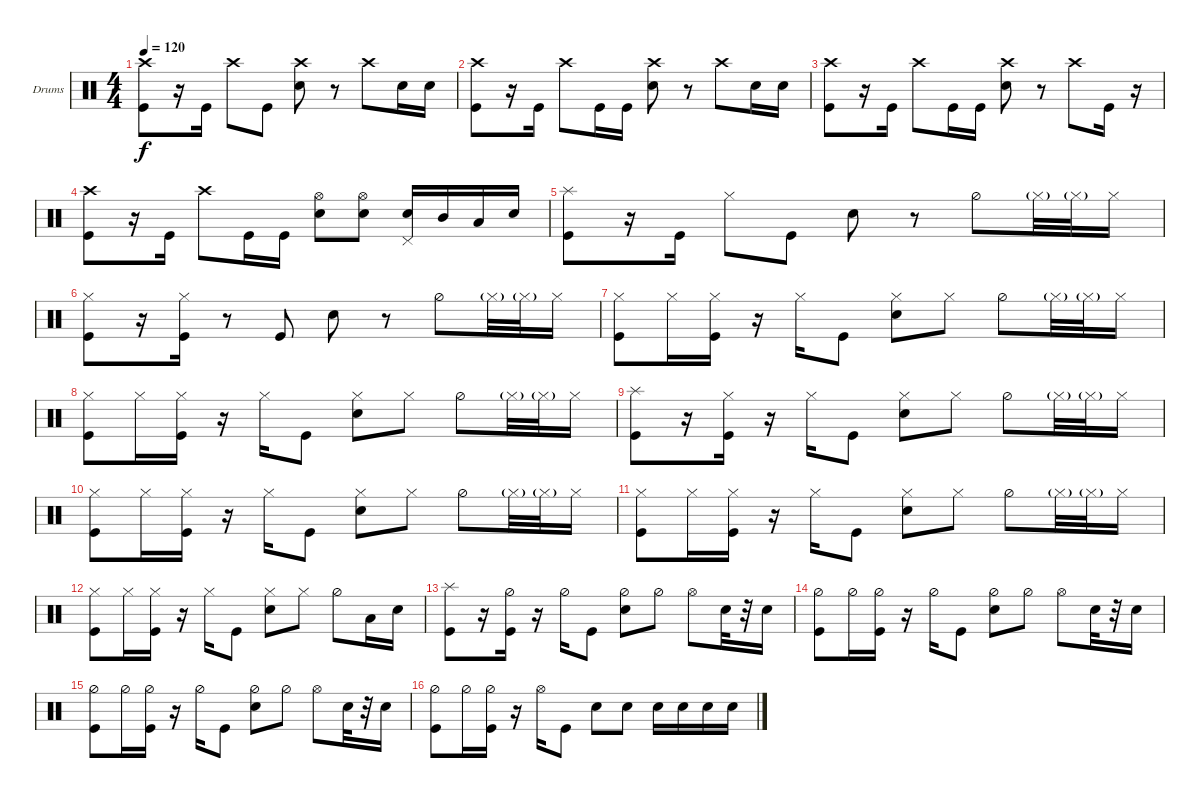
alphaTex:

\bracketExtendMode groupsimilarinstruments
\firstSystemTrackNameOrientation horizontal
\otherSystemsTrackNameOrientation horizontal
\track ("Drumkit" "Drums") {instrument percussion}
\staff {score}
\articulation defaults
\ts (4 4)
\tempo 120
\clef neutral
\ks c
("Crash high (hit)" "Kick (hit)").8{dy f} r.16 "Kick (hit)".16 "Crash high (hit)".8 "Kick (hit)".8 ("Crash high (hit)" "Snare (hit) 2").8 r.8 "Crash high (hit)".8 "Snare (hit) 2".16 "Snare (hit) 2".16 |
("Crash high (hit)" "Kick (hit)").8 r.16 "Kick (hit)".16 "Crash high (hit)".8 "Kick (hit)".16 "Kick (hit)".16 ("Crash high (hit)" "Snare (hit) 2").8 r.8 "Crash high (hit)".8 "Snare (hit) 2".16 "Snare (hit) 2".16 |
("Crash high (hit)" "Kick (hit)").8 r.16 "Kick (hit)".16 "Crash high (hit)".8 "Kick (hit)".16 "Kick (hit)".16 ("Crash high (hit)" "Snare (hit) 2").8 r.8 "Crash high (hit)".8 "Kick (hit)".16 r.16 |
("Crash high (hit)" "Kick (hit)").8 r.16 "Kick (hit)".16 "Crash high (hit)".8 "Kick (hit)".16 "Kick (hit)".16 ("Hi-Hat (open)" "Snare (hit) 2").8 ("Hi-Hat (open)" "Snare (hit) 2").8 ("Snare (hit) 2" "Pedal Hi-Hat (hit)").16 "Mid Tom (hit)".16 "Low Tom (hit)".16 "Snare (hit) 2".16 |
("Splash (hit)" "Kick (hit)").8 r.16 "Kick (hit)".16 "Hi-Hat (closed)".8 "Kick (hit)".8 "Snare (hit) 2".8 r.8 "Hi-Hat (half)".8 "Hi-Hat (closed)"{g}.32 "Hi-Hat (closed)"{g}.32 "Hi-Hat (closed)".16 |
("Kick (hit)" "Hi-Hat (closed)").8 r.16 ("Kick (hit)" "Hi-Hat (closed)").16 r.8 "Kick (hit)".8 "Snare (hit) 2".8 r.8 "Hi-Hat (half)".8 "Hi-Hat (closed)"{g}.32 "Hi-Hat (closed)"{g}.32 "Hi-Hat (closed)".16 |
("Kick (hit)" "Hi-Hat (closed)").8 "Hi-Hat (closed)".16 ("Kick (hit)" "Hi-Hat (closed)").16 r.16 "Hi-Hat (closed)".16 "Kick (hit)".8 ("Snare (hit) 2" "Hi-Hat (closed)").8 "Hi-Hat (closed)".8 "Hi-Hat (half)".8 "Hi-Hat (closed)"{g}.32 "Hi-Hat (closed)"{g}.32 "Hi-Hat (closed)".16 |
("Kick (hit)" "Hi-Hat (closed)").8 "Hi-Hat (closed)".16 ("Kick (hit)" "Hi-Hat (closed)").16 r.16 "Hi-Hat (closed)".16 "Kick (hit)".8 ("Snare (hit) 2" "Hi-Hat (closed)").8 "Hi-Hat (closed)".8 "Hi-Hat (half)".8 "Hi-Hat (closed)"{g}.32 "Hi-Hat (closed)"{g}.32 "Hi-Hat (closed)".16 |
("Kick (hit)" "Splash (hit)").8 r.16 ("Kick (hit)" "Hi-Hat (closed)").16 r.16 "Hi-Hat (closed)".16 "Kick (hit)".8 ("Snare (hit) 2" "Hi-Hat (closed)").8 "Hi-Hat (closed)".8 "Hi-Hat (half)".8 "Hi-Hat (closed)"{g}.32 "Hi-Hat (closed)"{g}.32 "Hi-Hat (closed)".16 |
("Kick (hit)" "Hi-Hat (closed)").8 "Hi-Hat (closed)".16 ("Kick (hit)" "Hi-Hat (closed)").16 r.16 "Hi-Hat (closed)".16 "Kick (hit)".8 ("Snare (hit) 2" "Hi-Hat (closed)").8 "Hi-Hat (closed)".8 "Hi-Hat (half)".8 "Hi-Hat (closed)"{g}.32 "Hi-Hat (closed)"{g}.32 "Hi-Hat (closed)".16 |
("Kick (hit)" "Hi-Hat (closed)").8 "Hi-Hat (closed)".16 ("Kick (hit)" "Hi-Hat (closed)").16 r.16 "Hi-Hat (closed)".16 "Kick (hit)".8 ("Snare (hit) 2" "Hi-Hat (closed)").8 "Hi-Hat (closed)".8 "Hi-Hat (half)".8 "Hi-Hat (closed)"{g}.32 "Hi-Hat (closed)"{g}.32 "Hi-Hat (closed)".16 |
("Kick (hit)" "Hi-Hat (closed)").8 "Hi-Hat (closed)".16 ("Kick (hit)" "Hi-Hat (closed)").16 r.16 "Hi-Hat (closed)".16 "Kick (hit)".8 ("Snare (hit) 2" "Hi-Hat (closed)").8 "Hi-Hat (closed)".8 "Hi-Hat (half)".8 "Low Tom (hit)".16 "Snare (hit) 2".16 |
("Kick (hit)" "Splash (hit)").8 r.16 ("Kick (hit)" "Hi-Hat (half)").16 r.16 "Hi-Hat (half)".16 "Kick (hit)".8 ("Snare (hit) 2" "Hi-Hat (half)").8 "Hi-Hat (half)".8 "Hi-Hat (open)".8 "Snare (hit) 2".32 r.32 "Snare (hit) 2".16 |
("Kick (hit)" "Hi-Hat (half)").8 "Hi-Hat (half)".16 ("Kick (hit)" "Hi-Hat (half)").16 r.16 "Hi-Hat (half)".16 "Kick (hit)".8 ("Snare (hit) 2" "Hi-Hat (half)").8 "Hi-Hat (half)".8 "Hi-Hat (open)".8 "Snare (hit) 2".32 r.32 "Snare (hit) 2".16 |
("Kick (hit)" "Hi-Hat (half)").8 "Hi-Hat (half)".16 ("Kick (hit)" "Hi-Hat (half)").16 r.16 "Hi-Hat (half)".16 "Kick (hit)".8 ("Snare (hit) 2" "Hi-Hat (half)").8 "Hi-Hat (half)".8 "Hi-Hat (open)".8 "Snare (hit) 2".32 r.32 "Snare (hit) 2".16 |
("Kick (hit)" "Hi-Hat (half)").8 "Hi-Hat (half)".16 ("Kick (hit)" "Hi-Hat (half)").16 r.16 "Hi-Hat (open)".16 "Kick (hit)".8 "Snare (hit) 2".8 "Snare (hit) 2".8 "Snare (hit) 2".16 "Snare (hit) 2".16 "Snare (hit) 2".16 "Snare (hit) 2".16
